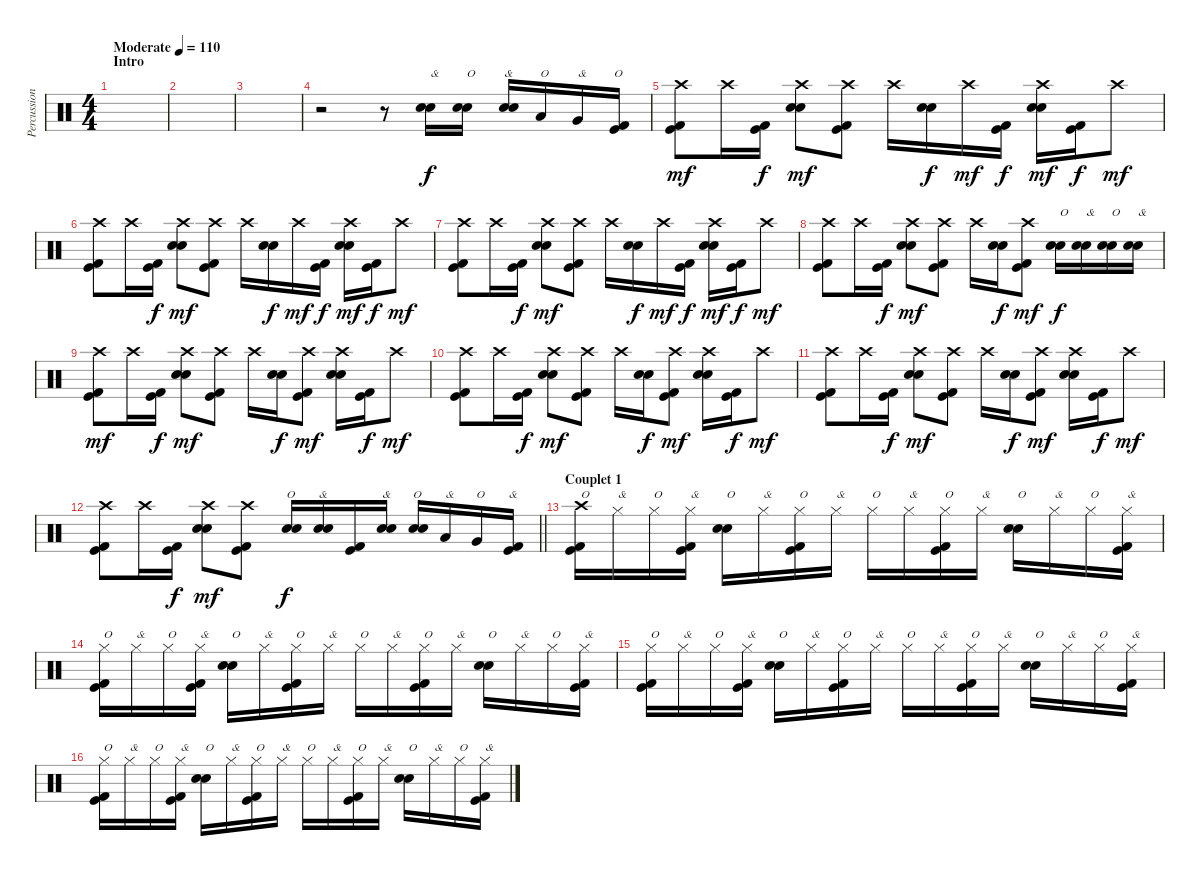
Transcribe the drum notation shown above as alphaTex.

\track ("Percussions" "Percussion") {instrument percussion}
\staff {score}
\articulation defaults
\ts (4 4)
\section ("" "Intro")
\tempo (110 "Moderate")
\clef neutral
\ks c
|
|
|
r.2 r.8 ("Snare (hit) 2" "Electric Snare (hit)").16{txt "&"} ("Snare (hit) 2" "Electric Snare (hit)").16{txt "O"} ("Snare (hit) 2" "Electric Snare (hit)").16{txt "&"} "Low Tom (hit)".16{txt "O"} "Very Low Tom (hit)".16{txt "&"} ("Kick (hit)" "Kick (hit) 2").16{txt "O"} |
("Crash high (hit)" "Kick (hit)" "Kick (hit) 2").8{dy mf} "Crash high (hit)".16 ("Kick (hit)" "Kick (hit) 2").16{dy f} ("Crash high (hit)" "Snare (hit) 2" "Electric Snare (hit)").8{dy mf} ("Crash high (hit)" "Kick (hit)" "Kick (hit) 2").8 "Crash high (hit)".16 ("Snare (hit) 2" "Electric Snare (hit)").16{dy f} "Crash high (hit)".16{dy mf} ("Kick (hit)" "Kick (hit) 2").16{dy f} ("Crash high (hit)" "Snare (hit) 2" "Electric Snare (hit)").16{dy mf} ("Kick (hit)" "Kick (hit) 2").16{dy f} "Crash high (hit)".8{dy mf} |
("Crash high (hit)" "Kick (hit)" "Kick (hit) 2").8 "Crash high (hit)".16 ("Kick (hit)" "Kick (hit) 2").16{dy f} ("Crash high (hit)" "Snare (hit) 2" "Electric Snare (hit)").8{dy mf} ("Crash high (hit)" "Kick (hit)" "Kick (hit) 2").8 "Crash high (hit)".16 ("Snare (hit) 2" "Electric Snare (hit)").16{dy f} "Crash high (hit)".16{dy mf} ("Kick (hit)" "Kick (hit) 2").16{dy f} ("Crash high (hit)" "Snare (hit) 2" "Electric Snare (hit)").16{dy mf} ("Kick (hit)" "Kick (hit) 2").16{dy f} "Crash high (hit)".8{dy mf} |
("Crash high (hit)" "Kick (hit)" "Kick (hit) 2").8 "Crash high (hit)".16 ("Kick (hit)" "Kick (hit) 2").16{dy f} ("Crash high (hit)" "Snare (hit) 2" "Electric Snare (hit)").8{dy mf} ("Crash high (hit)" "Kick (hit)" "Kick (hit) 2").8 "Crash high (hit)".16 ("Snare (hit) 2" "Electric Snare (hit)").16{dy f} "Crash high (hit)".16{dy mf} ("Kick (hit)" "Kick (hit) 2").16{dy f} ("Crash high (hit)" "Snare (hit) 2" "Electric Snare (hit)").16{dy mf} ("Kick (hit)" "Kick (hit) 2").16{dy f} "Crash high (hit)".8{dy mf} |
("Crash high (hit)" "Kick (hit)" "Kick (hit) 2").8 "Crash high (hit)".16 ("Kick (hit)" "Kick (hit) 2").16{dy f} ("Crash high (hit)" "Snare (hit) 2" "Electric Snare (hit)").8{dy mf} ("Crash high (hit)" "Kick (hit)" "Kick (hit) 2").8 "Crash high (hit)".16 ("Snare (hit) 2" "Electric Snare (hit)").16{dy f} ("Crash high (hit)" "Kick (hit)" "Kick (hit) 2").8{dy mf} ("Snare (hit) 2" "Electric Snare (hit)").16{txt "O" dy f} ("Snare (hit) 2" "Electric Snare (hit)").16{txt "&"} ("Snare (hit) 2" "Electric Snare (hit)").16{txt "O"} ("Snare (hit) 2" "Electric Snare (hit)").16{txt "&"} |
("Crash high (hit)" "Kick (hit)" "Kick (hit) 2").8{dy mf} "Crash high (hit)".16 ("Kick (hit)" "Kick (hit) 2").16{dy f} ("Crash high (hit)" "Snare (hit) 2" "Electric Snare (hit)").8{dy mf} ("Crash high (hit)" "Kick (hit)" "Kick (hit) 2").8 "Crash high (hit)".16 ("Snare (hit) 2" "Electric Snare (hit)").16{dy f} ("Crash high (hit)" "Kick (hit)" "Kick (hit) 2").8{dy mf} ("Crash high (hit)" "Snare (hit) 2" "Electric Snare (hit)").16 ("Kick (hit)" "Kick (hit) 2").16{dy f} "Crash high (hit)".8{dy mf} |
("Crash high (hit)" "Kick (hit)" "Kick (hit) 2").8 "Crash high (hit)".16 ("Kick (hit)" "Kick (hit) 2").16{dy f} ("Crash high (hit)" "Snare (hit) 2" "Electric Snare (hit)").8{dy mf} ("Crash high (hit)" "Kick (hit)" "Kick (hit) 2").8 "Crash high (hit)".16 ("Snare (hit) 2" "Electric Snare (hit)").16{dy f} ("Crash high (hit)" "Kick (hit)" "Kick (hit) 2").8{dy mf} ("Crash high (hit)" "Snare (hit) 2" "Electric Snare (hit)").16 ("Kick (hit)" "Kick (hit) 2").16{dy f} "Crash high (hit)".8{dy mf} |
("Crash high (hit)" "Kick (hit)" "Kick (hit) 2").8 "Crash high (hit)".16 ("Kick (hit)" "Kick (hit) 2").16{dy f} ("Crash high (hit)" "Snare (hit) 2" "Electric Snare (hit)").8{dy mf} ("Crash high (hit)" "Kick (hit)" "Kick (hit) 2").8 "Crash high (hit)".16 ("Snare (hit) 2" "Electric Snare (hit)").16{dy f} ("Crash high (hit)" "Kick (hit)" "Kick (hit) 2").8{dy mf} ("Crash high (hit)" "Snare (hit) 2" "Electric Snare (hit)").16 ("Kick (hit)" "Kick (hit) 2").16{dy f} "Crash high (hit)".8{dy mf} |
\barLineRight lightlight
("Crash high (hit)" "Kick (hit)" "Kick (hit) 2").8 "Crash high (hit)".16 ("Kick (hit)" "Kick (hit) 2").16{dy f} ("Crash high (hit)" "Snare (hit) 2" "Electric Snare (hit)").8{dy mf} ("Crash high (hit)" "Kick (hit)" "Kick (hit) 2").8 ("Snare (hit) 2" "Electric Snare (hit)").16{txt "O" dy f} ("Snare (hit) 2" "Electric Snare (hit)").16{txt "&"} ("Kick (hit)" "Kick (hit) 2").16 ("Snare (hit) 2" "Electric Snare (hit)").16{txt "&"} ("Snare (hit) 2" "Electric Snare (hit)").16{txt "O"} "Low Tom (hit)".16{txt "&"} "Very Low Tom (hit)".16{txt "O"} ("Kick (hit)" "Kick (hit) 2").16{txt "&"} |
\section ("" "Couplet 1")
("Crash high (hit)" "Kick (hit)" "Kick (hit) 2").16{txt "O"} "Hi-Hat (closed)".16{txt "&"} "Hi-Hat (closed)".16{txt "O"} ("Hi-Hat (closed)" "Kick (hit)" "Kick (hit) 2").16{txt "&"} ("Snare (hit) 2" "Electric Snare (hit)").16{txt "O"} "Hi-Hat (closed)".16{txt "&"} ("Hi-Hat (closed)" "Kick (hit) 2" "Kick (hit)").16{txt "O"} "Hi-Hat (closed)".16{txt "&"} "Hi-Hat (closed)".16{txt "O"} "Hi-Hat (closed)".16{txt "&"} ("Hi-Hat (closed)" "Kick (hit)" "Kick (hit) 2").16{txt "O"} "Hi-Hat (closed)".16{txt "&"} ("Snare (hit) 2" "Electric Snare (hit)").16{txt "O"} "Hi-Hat (closed)".16{txt "&"} "Hi-Hat (closed)".16{txt "O"} ("Hi-Hat (closed)" "Kick (hit)" "Kick (hit) 2").16{txt "&"} |
("Hi-Hat (closed)" "Kick (hit)" "Kick (hit) 2").16{txt "O"} "Hi-Hat (closed)".16{txt "&"} "Hi-Hat (closed)".16{txt "O"} ("Hi-Hat (closed)" "Kick (hit)" "Kick (hit) 2").16{txt "&"} ("Snare (hit) 2" "Electric Snare (hit)").16{txt "O"} "Hi-Hat (closed)".16{txt "&"} ("Hi-Hat (closed)" "Kick (hit) 2" "Kick (hit)").16{txt "O"} "Hi-Hat (closed)".16{txt "&"} "Hi-Hat (closed)".16{txt "O"} "Hi-Hat (closed)".16{txt "&"} ("Hi-Hat (closed)" "Kick (hit)" "Kick (hit) 2").16{txt "O"} "Hi-Hat (closed)".16{txt "&"} ("Snare (hit) 2" "Electric Snare (hit)").16{txt "O"} "Hi-Hat (closed)".16{txt "&"} "Hi-Hat (closed)".16{txt "O"} ("Hi-Hat (closed)" "Kick (hit)" "Kick (hit) 2").16{txt "&"} |
("Hi-Hat (closed)" "Kick (hit)" "Kick (hit) 2").16{txt "O"} "Hi-Hat (closed)".16{txt "&"} "Hi-Hat (closed)".16{txt "O"} ("Hi-Hat (closed)" "Kick (hit)" "Kick (hit) 2").16{txt "&"} ("Snare (hit) 2" "Electric Snare (hit)").16{txt "O"} "Hi-Hat (closed)".16{txt "&"} ("Hi-Hat (closed)" "Kick (hit) 2" "Kick (hit)").16{txt "O"} "Hi-Hat (closed)".16{txt "&"} "Hi-Hat (closed)".16{txt "O"} "Hi-Hat (closed)".16{txt "&"} ("Hi-Hat (closed)" "Kick (hit)" "Kick (hit) 2").16{txt "O"} "Hi-Hat (closed)".16{txt "&"} ("Snare (hit) 2" "Electric Snare (hit)").16{txt "O"} "Hi-Hat (closed)".16{txt "&"} "Hi-Hat (closed)".16{txt "O"} ("Hi-Hat (closed)" "Kick (hit)" "Kick (hit) 2").16{txt "&"} |
("Hi-Hat (closed)" "Kick (hit)" "Kick (hit) 2").16{txt "O"} "Hi-Hat (closed)".16{txt "&"} "Hi-Hat (closed)".16{txt "O"} ("Hi-Hat (closed)" "Kick (hit)" "Kick (hit) 2").16{txt "&"} ("Snare (hit) 2" "Electric Snare (hit)").16{txt "O"} "Hi-Hat (closed)".16{txt "&"} ("Hi-Hat (closed)" "Kick (hit) 2" "Kick (hit)").16{txt "O"} "Hi-Hat (closed)".16{txt "&"} "Hi-Hat (closed)".16{txt "O"} "Hi-Hat (closed)".16{txt "&"} ("Hi-Hat (closed)" "Kick (hit)" "Kick (hit) 2").16{txt "O"} "Hi-Hat (closed)".16{txt "&"} ("Snare (hit) 2" "Electric Snare (hit)").16{txt "O"} "Hi-Hat (closed)".16{txt "&"} "Hi-Hat (closed)".16{txt "O"} ("Hi-Hat (closed)" "Kick (hit)" "Kick (hit) 2").16{txt "&"}
